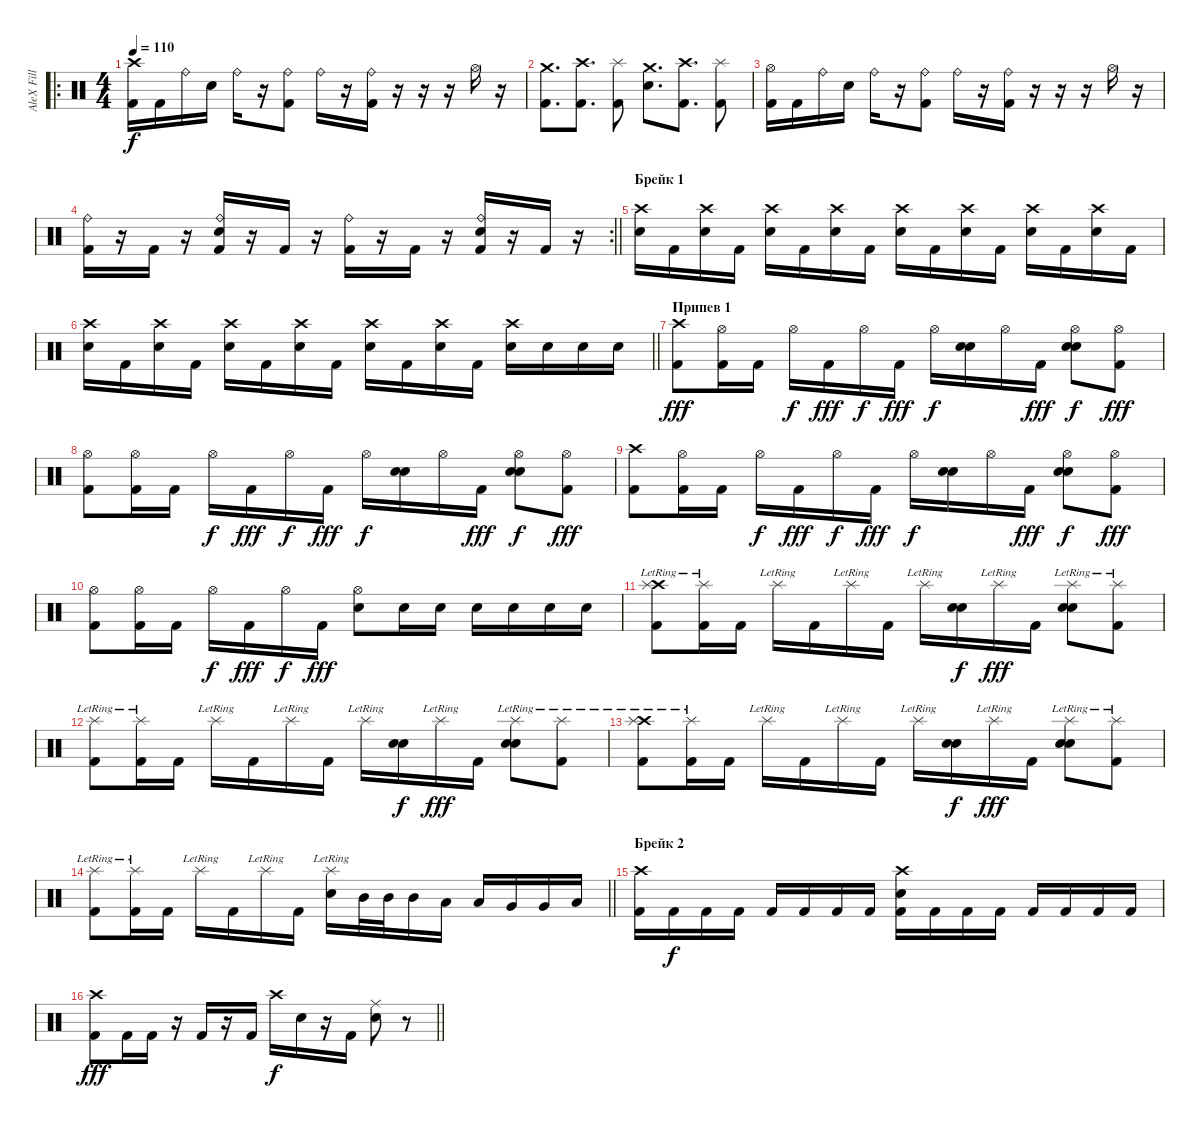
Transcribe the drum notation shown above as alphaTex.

\track ("AleX Fill" "AleX Fill") {instrument percussion}
\staff {score}
\articulation defaults
\ro
\ts (4 4)
\tempo 110
\clef neutral
\ks c
("Crash high (hit)" "Kick (hit) 2").16{dy f} "Kick (hit) 2".16 "Ride (bell)".16 "Electric Snare (hit)".16 "Ride (bell)".16 r.16 ("Ride (bell)" "Kick (hit) 2").8 "Ride (bell)".16 r.16 ("Ride (bell)" "Kick (hit) 2").16 r.16 r.16 r.16 "Hi-Hat (open)".16 r.16 |
("Crash medium (hit)" "Kick (hit) 2").8{d} ("Crash high (hit)" "Kick (hit) 2").8{d} ("Splash (hit)" "Kick (hit) 2").8 ("Crash medium (hit)" "Electric Snare (hit)").8{d} ("Crash high (hit)" "Kick (hit) 2").8{d} ("Splash (hit)" "Kick (hit) 2").8 |
("Hi-Hat (open)" "Kick (hit) 2").16 "Kick (hit) 2".16 "Ride (bell)".16 "Electric Snare (hit)".16 "Ride (bell)".16 r.16 ("Ride (bell)" "Kick (hit) 2").8 "Ride (bell)".16 r.16 ("Ride (bell)" "Kick (hit) 2").16 r.16 r.16 r.16 "Hi-Hat (open)".16 r.16 |
\rc 2
\barLineRight lightlight
("Ride (bell)" "Kick (hit) 2").16 r.16 "Kick (hit) 2".16 r.16 ("Ride (bell)" "Electric Snare (hit)" "Kick (hit) 2").16 r.16 "Kick (hit) 2".16 r.16 ("Ride (bell)" "Kick (hit) 2").16 r.16 "Kick (hit) 2".16 r.16 ("Ride (bell)" "Electric Snare (hit)" "Kick (hit) 2").16 r.16 "Kick (hit) 2".16 r.16 |
\section ("" "Брейк 1")
("Crash high (hit)" "Electric Snare (hit)").16 "Kick (hit) 2".16 ("Crash high (hit)" "Electric Snare (hit)").16 "Kick (hit) 2".16 ("Crash high (hit)" "Electric Snare (hit)").16 "Kick (hit) 2".16 ("Crash high (hit)" "Electric Snare (hit)").16 "Kick (hit) 2".16 ("Crash high (hit)" "Electric Snare (hit)").16 "Kick (hit) 2".16 ("Crash high (hit)" "Electric Snare (hit)").16 "Kick (hit) 2".16 ("Crash high (hit)" "Electric Snare (hit)").16 "Kick (hit) 2".16 ("Crash high (hit)" "Electric Snare (hit)").16 "Kick (hit) 2".16 |
\barLineRight lightlight
("Crash high (hit)" "Electric Snare (hit)").16 "Kick (hit) 2".16 ("Crash high (hit)" "Electric Snare (hit)").16 "Kick (hit) 2".16 ("Crash high (hit)" "Electric Snare (hit)").16 "Kick (hit) 2".16 ("Crash high (hit)" "Electric Snare (hit)").16 "Kick (hit) 2".16 ("Crash high (hit)" "Electric Snare (hit)").16 "Kick (hit) 2".16 ("Crash high (hit)" "Electric Snare (hit)").16 "Kick (hit) 2".16 ("Crash high (hit)" "Electric Snare (hit)").16 "Electric Snare (hit)".16 "Electric Snare (hit)".16 "Electric Snare (hit)".16 |
\section ("" "Припев 1")
("Crash high (hit)" "Kick (hit) 2").8{dy fff} ("Hi-Hat (open)" "Kick (hit) 2").16 "Kick (hit) 2".16 "Hi-Hat (open)".16{dy f} "Kick (hit) 2".16{dy fff} "Hi-Hat (open)".16{dy f} "Kick (hit) 2".16{dy fff} "Hi-Hat (open)".16{dy f} ("Electric Snare (hit)" "Electric Snare (hit)").16 "Hi-Hat (open)".16 "Kick (hit) 2".16{dy fff} ("Hi-Hat (open)" "Electric Snare (hit)" "Electric Snare (hit)").8{dy f} ("Hi-Hat (open)" "Kick (hit) 2").8{dy fff} |
("Hi-Hat (open)" "Kick (hit) 2").8 ("Hi-Hat (open)" "Kick (hit) 2").16 "Kick (hit) 2".16 "Hi-Hat (open)".16{dy f} "Kick (hit) 2".16{dy fff} "Hi-Hat (open)".16{dy f} "Kick (hit) 2".16{dy fff} "Hi-Hat (open)".16{dy f} ("Electric Snare (hit)" "Electric Snare (hit)").16 "Hi-Hat (open)".16 "Kick (hit) 2".16{dy fff} ("Hi-Hat (open)" "Electric Snare (hit)" "Electric Snare (hit)").8{dy f} ("Hi-Hat (open)" "Kick (hit) 2").8{dy fff} |
("Crash high (hit)" "Kick (hit) 2").8 ("Hi-Hat (open)" "Kick (hit) 2").16 "Kick (hit) 2".16 "Hi-Hat (open)".16{dy f} "Kick (hit) 2".16{dy fff} "Hi-Hat (open)".16{dy f} "Kick (hit) 2".16{dy fff} "Hi-Hat (open)".16{dy f} ("Electric Snare (hit)" "Electric Snare (hit)").16 "Hi-Hat (open)".16 "Kick (hit) 2".16{dy fff} ("Hi-Hat (open)" "Electric Snare (hit)" "Electric Snare (hit)").8{dy f} ("Hi-Hat (open)" "Kick (hit) 2").8{dy fff} |
("Hi-Hat (open)" "Kick (hit) 2").8 ("Hi-Hat (open)" "Kick (hit) 2").16 "Kick (hit) 2".16 "Hi-Hat (open)".16{dy f} "Kick (hit) 2".16{dy fff} "Hi-Hat (open)".16{dy f} "Kick (hit) 2".16{dy fff} ("Hi-Hat (open)" "Electric Snare (hit)").8 "Electric Snare (hit)".16 "Electric Snare (hit)".16 "Electric Snare (hit)".16 "Electric Snare (hit)".16 "Electric Snare (hit)".16 "Electric Snare (hit)".16 |
("Crash high (hit)" "Splash (hit)"{lr} "Kick (hit) 2").8 ("Splash (hit)"{lr} "Kick (hit) 2").16 "Kick (hit) 2".16 "Splash (hit)"{lr}.16 "Kick (hit) 2".16 "Splash (hit)"{lr}.16 "Kick (hit) 2".16 "Splash (hit)"{lr}.16 ("Electric Snare (hit)" "Electric Snare (hit)").16{dy f} "Splash (hit)"{lr}.16{dy fff} "Kick (hit) 2".16 ("Splash (hit)"{lr} "Electric Snare (hit)" "Electric Snare (hit)").8 ("Splash (hit)"{lr} "Kick (hit) 2").8 |
("Splash (hit)"{lr} "Kick (hit) 2").8 ("Splash (hit)"{lr} "Kick (hit) 2").16 "Kick (hit) 2".16 "Splash (hit)"{lr}.16 "Kick (hit) 2".16 "Splash (hit)"{lr}.16 "Kick (hit) 2".16 "Splash (hit)"{lr}.16 ("Electric Snare (hit)" "Electric Snare (hit)").16{dy f} "Splash (hit)"{lr}.16{dy fff} "Kick (hit) 2".16 ("Splash (hit)"{lr} "Electric Snare (hit)" "Electric Snare (hit)").8 ("Splash (hit)"{lr} "Kick (hit) 2").8 |
("Crash high (hit)" "Splash (hit)"{lr} "Kick (hit) 2").8 ("Splash (hit)"{lr} "Kick (hit) 2").16 "Kick (hit) 2".16 "Splash (hit)"{lr}.16 "Kick (hit) 2".16 "Splash (hit)"{lr}.16 "Kick (hit) 2".16 "Splash (hit)"{lr}.16 ("Electric Snare (hit)" "Electric Snare (hit)").16{dy f} "Splash (hit)"{lr}.16{dy fff} "Kick (hit) 2".16 ("Splash (hit)"{lr} "Electric Snare (hit)" "Electric Snare (hit)").8 ("Splash (hit)"{lr} "Kick (hit) 2").8 |
\barLineRight lightlight
("Splash (hit)"{lr} "Kick (hit) 2").8 ("Splash (hit)"{lr} "Kick (hit) 2").16 "Kick (hit) 2".16 "Splash (hit)"{lr}.16 "Kick (hit) 2".16 "Splash (hit)"{lr}.16 "Kick (hit) 2".16 ("Splash (hit)"{lr} "Electric Snare (hit)").16 "Mid Tom (hit)".32 "Mid Tom (hit)".32 "Mid Tom (hit)".16 "Low Tom (hit)".16 "Low Tom (hit)".16 "Very Low Tom (hit)".16 "Very Low Tom (hit)".16 "Low Floor Tom (hit)".16 |
\section ("" "Брейк 2")
("Crash high (hit)" "Kick (hit) 2").16 "Kick (hit) 2".16{dy f} "Kick (hit) 2".16 "Kick (hit) 2".16 "Kick (hit) 2".16 "Kick (hit) 2".16 "Kick (hit) 2".16 "Kick (hit) 2".16 ("Crash high (hit)" "Electric Snare (hit)" "Kick (hit) 2").16 "Kick (hit) 2".16 "Kick (hit) 2".16 "Kick (hit) 2".16 "Kick (hit) 2".16 "Kick (hit) 2".16 "Kick (hit) 2".16 "Kick (hit) 2".16 |
\barLineRight lightlight
("Crash high (hit)" "Kick (hit) 2").8{dy fff} "Kick (hit) 2".16 "Kick (hit) 2".16 r.16 "Kick (hit) 2".16 r.16 "Kick (hit) 2".16 "Crash high (hit)".16{dy f} "Electric Snare (hit)".16 r.16 "Kick (hit) 2".16 ("Ride (middle)" "Electric Snare (hit)").8 r.8
